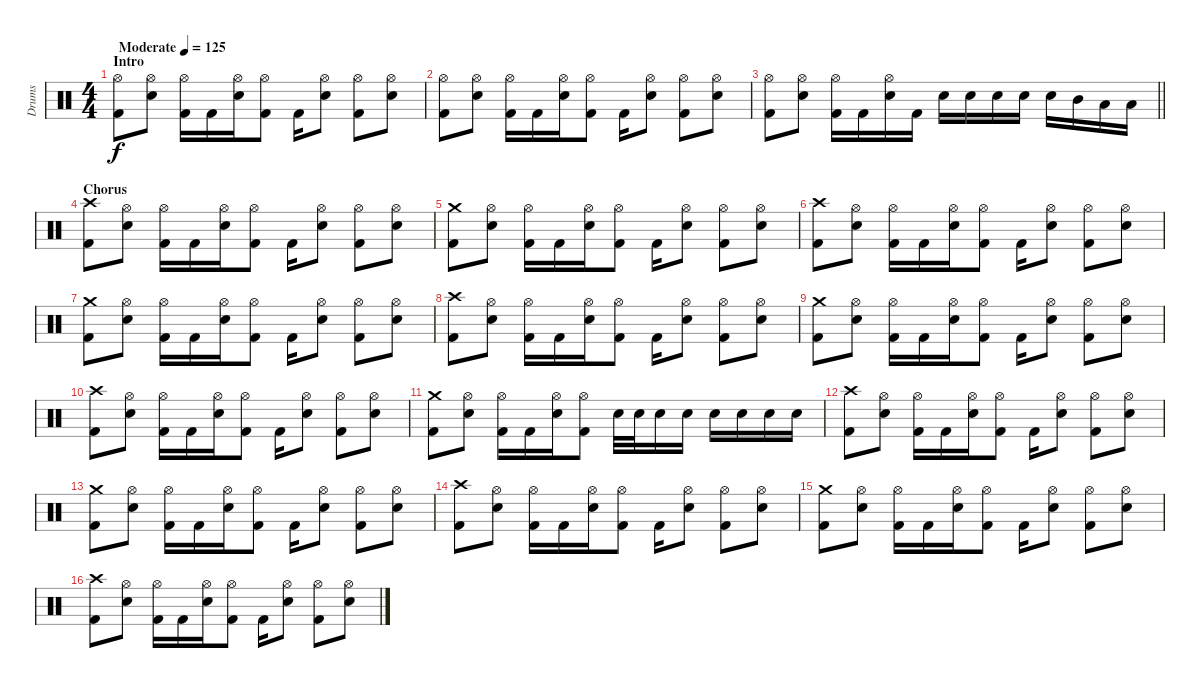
\track ("Drums" "Drums") {instrument percussion}
\staff {score}
\articulation defaults
\ts (4 4)
\section ("" "Intro")
\tempo (125 "Moderate")
\clef neutral
\ks c
("Hi-Hat (open)" "Kick (hit) 2").8{dy f} ("Hi-Hat (open)" "Electric Snare (hit)").8 ("Hi-Hat (open)" "Kick (hit) 2").16 "Kick (hit) 2".16 ("Hi-Hat (open)" "Electric Snare (hit)").16 ("Hi-Hat (open)" "Kick (hit) 2").8 "Kick (hit) 2".16 ("Hi-Hat (open)" "Electric Snare (hit)").8 ("Hi-Hat (open)" "Kick (hit) 2").8 ("Hi-Hat (open)" "Electric Snare (hit)").8 |
("Hi-Hat (open)" "Kick (hit) 2").8 ("Hi-Hat (open)" "Electric Snare (hit)").8 ("Hi-Hat (open)" "Kick (hit) 2").16 "Kick (hit) 2".16 ("Hi-Hat (open)" "Electric Snare (hit)").16 ("Hi-Hat (open)" "Kick (hit) 2").8 "Kick (hit) 2".16 ("Hi-Hat (open)" "Electric Snare (hit)").8 ("Hi-Hat (open)" "Kick (hit) 2").8 ("Hi-Hat (open)" "Electric Snare (hit)").8 |
\barLineRight lightlight
("Hi-Hat (open)" "Kick (hit) 2").8 ("Hi-Hat (open)" "Electric Snare (hit)").8 ("Hi-Hat (open)" "Kick (hit) 2").16 "Kick (hit) 2".16 ("Hi-Hat (open)" "Electric Snare (hit)").16 "Kick (hit) 2".16 "Electric Snare (hit)".16 "Electric Snare (hit)".16 "Electric Snare (hit)".16 "Electric Snare (hit)".16 "Electric Snare (hit)".16 "Mid Tom (hit)".16 "Low Tom (hit)".16 "Low Floor Tom (hit)".16 |
\section ("" "Chorus")
("Crash high (hit)" "Kick (hit) 2").8 ("Hi-Hat (open)" "Electric Snare (hit)").8 ("Hi-Hat (open)" "Kick (hit) 2").16 "Kick (hit) 2".16 ("Hi-Hat (open)" "Electric Snare (hit)").16 ("Hi-Hat (open)" "Kick (hit) 2").8 "Kick (hit) 2".16 ("Hi-Hat (open)" "Electric Snare (hit)").8 ("Hi-Hat (open)" "Kick (hit) 2").8 ("Hi-Hat (open)" "Electric Snare (hit)").8 |
("Crash medium (hit)" "Kick (hit) 2").8 ("Hi-Hat (open)" "Electric Snare (hit)").8 ("Hi-Hat (open)" "Kick (hit) 2").16 "Kick (hit) 2".16 ("Hi-Hat (open)" "Electric Snare (hit)").16 ("Hi-Hat (open)" "Kick (hit) 2").8 "Kick (hit) 2".16 ("Hi-Hat (open)" "Electric Snare (hit)").8 ("Hi-Hat (open)" "Kick (hit) 2").8 ("Hi-Hat (open)" "Electric Snare (hit)").8 |
("Crash high (hit)" "Kick (hit) 2").8 ("Hi-Hat (open)" "Electric Snare (hit)").8 ("Hi-Hat (open)" "Kick (hit) 2").16 "Kick (hit) 2".16 ("Hi-Hat (open)" "Electric Snare (hit)").16 ("Hi-Hat (open)" "Kick (hit) 2").8 "Kick (hit) 2".16 ("Hi-Hat (open)" "Electric Snare (hit)").8 ("Hi-Hat (open)" "Kick (hit) 2").8 ("Hi-Hat (open)" "Electric Snare (hit)").8 |
("Crash medium (hit)" "Kick (hit) 2").8 ("Hi-Hat (open)" "Electric Snare (hit)").8 ("Hi-Hat (open)" "Kick (hit) 2").16 "Kick (hit) 2".16 ("Hi-Hat (open)" "Electric Snare (hit)").16 ("Hi-Hat (open)" "Kick (hit) 2").8 "Kick (hit) 2".16 ("Hi-Hat (open)" "Electric Snare (hit)").8 ("Hi-Hat (open)" "Kick (hit) 2").8 ("Hi-Hat (open)" "Electric Snare (hit)").8 |
("Crash high (hit)" "Kick (hit) 2").8 ("Hi-Hat (open)" "Electric Snare (hit)").8 ("Hi-Hat (open)" "Kick (hit) 2").16 "Kick (hit) 2".16 ("Hi-Hat (open)" "Electric Snare (hit)").16 ("Hi-Hat (open)" "Kick (hit) 2").8 "Kick (hit) 2".16 ("Hi-Hat (open)" "Electric Snare (hit)").8 ("Hi-Hat (open)" "Kick (hit) 2").8 ("Hi-Hat (open)" "Electric Snare (hit)").8 |
("Crash medium (hit)" "Kick (hit) 2").8 ("Hi-Hat (open)" "Electric Snare (hit)").8 ("Hi-Hat (open)" "Kick (hit) 2").16 "Kick (hit) 2".16 ("Hi-Hat (open)" "Electric Snare (hit)").16 ("Hi-Hat (open)" "Kick (hit) 2").8 "Kick (hit) 2".16 ("Hi-Hat (open)" "Electric Snare (hit)").8 ("Hi-Hat (open)" "Kick (hit) 2").8 ("Hi-Hat (open)" "Electric Snare (hit)").8 |
("Crash high (hit)" "Kick (hit) 2").8 ("Hi-Hat (open)" "Electric Snare (hit)").8 ("Hi-Hat (open)" "Kick (hit) 2").16 "Kick (hit) 2".16 ("Hi-Hat (open)" "Electric Snare (hit)").16 ("Hi-Hat (open)" "Kick (hit) 2").8 "Kick (hit) 2".16 ("Hi-Hat (open)" "Electric Snare (hit)").8 ("Hi-Hat (open)" "Kick (hit) 2").8 ("Hi-Hat (open)" "Electric Snare (hit)").8 |
("Crash medium (hit)" "Kick (hit) 2").8 ("Hi-Hat (open)" "Electric Snare (hit)").8 ("Hi-Hat (open)" "Kick (hit) 2").16 "Kick (hit) 2".16 ("Hi-Hat (open)" "Electric Snare (hit)").16 ("Hi-Hat (open)" "Kick (hit) 2").8 "Electric Snare (hit)".32 "Electric Snare (hit)".32 "Electric Snare (hit)".16 "Electric Snare (hit)".16 "Electric Snare (hit)".16 "Electric Snare (hit)".16 "Electric Snare (hit)".16 "Electric Snare (hit)".16 |
("Crash high (hit)" "Kick (hit) 2").8 ("Hi-Hat (open)" "Electric Snare (hit)").8 ("Hi-Hat (open)" "Kick (hit) 2").16 "Kick (hit) 2".16 ("Hi-Hat (open)" "Electric Snare (hit)").16 ("Hi-Hat (open)" "Kick (hit) 2").8 "Kick (hit) 2".16 ("Hi-Hat (open)" "Electric Snare (hit)").8 ("Hi-Hat (open)" "Kick (hit) 2").8 ("Hi-Hat (open)" "Electric Snare (hit)").8 |
("Crash medium (hit)" "Kick (hit) 2").8 ("Hi-Hat (open)" "Electric Snare (hit)").8 ("Hi-Hat (open)" "Kick (hit) 2").16 "Kick (hit) 2".16 ("Hi-Hat (open)" "Electric Snare (hit)").16 ("Hi-Hat (open)" "Kick (hit) 2").8 "Kick (hit) 2".16 ("Hi-Hat (open)" "Electric Snare (hit)").8 ("Hi-Hat (open)" "Kick (hit) 2").8 ("Hi-Hat (open)" "Electric Snare (hit)").8 |
("Crash high (hit)" "Kick (hit) 2").8 ("Hi-Hat (open)" "Electric Snare (hit)").8 ("Hi-Hat (open)" "Kick (hit) 2").16 "Kick (hit) 2".16 ("Hi-Hat (open)" "Electric Snare (hit)").16 ("Hi-Hat (open)" "Kick (hit) 2").8 "Kick (hit) 2".16 ("Hi-Hat (open)" "Electric Snare (hit)").8 ("Hi-Hat (open)" "Kick (hit) 2").8 ("Hi-Hat (open)" "Electric Snare (hit)").8 |
("Crash medium (hit)" "Kick (hit) 2").8 ("Hi-Hat (open)" "Electric Snare (hit)").8 ("Hi-Hat (open)" "Kick (hit) 2").16 "Kick (hit) 2".16 ("Hi-Hat (open)" "Electric Snare (hit)").16 ("Hi-Hat (open)" "Kick (hit) 2").8 "Kick (hit) 2".16 ("Hi-Hat (open)" "Electric Snare (hit)").8 ("Hi-Hat (open)" "Kick (hit) 2").8 ("Hi-Hat (open)" "Electric Snare (hit)").8 |
("Crash high (hit)" "Kick (hit) 2").8 ("Hi-Hat (open)" "Electric Snare (hit)").8 ("Hi-Hat (open)" "Kick (hit) 2").16 "Kick (hit) 2".16 ("Hi-Hat (open)" "Electric Snare (hit)").16 ("Hi-Hat (open)" "Kick (hit) 2").8 "Kick (hit) 2".16 ("Hi-Hat (open)" "Electric Snare (hit)").8 ("Hi-Hat (open)" "Kick (hit) 2").8 ("Hi-Hat (open)" "Electric Snare (hit)").8
